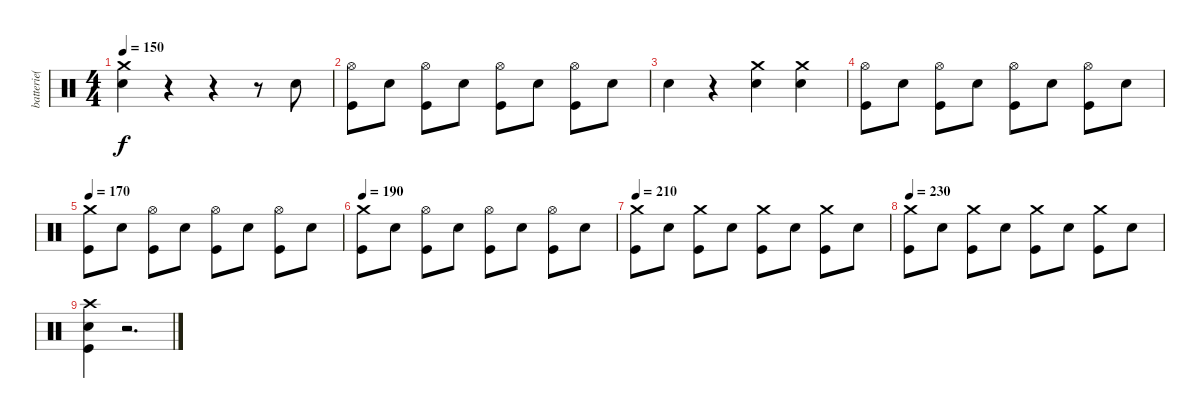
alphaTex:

\track ("batterie( Yureesh )" "batterie( ") {instrument percussion}
\staff {score}
\articulation defaults
\ts (4 4)
\tempo 150
\clef neutral
\ks c
("Crash medium (hit)" "Snare (hit) 2").4{dy f} r.4 r.4 r.8 "Snare (hit) 2".8 |
("Hi-Hat (open)" "Kick (hit)").8 "Snare (hit) 2".8 ("Hi-Hat (open)" "Kick (hit)").8 "Snare (hit) 2".8 ("Hi-Hat (open)" "Kick (hit)").8 "Snare (hit) 2".8 ("Hi-Hat (open)" "Kick (hit)").8 "Snare (hit) 2".8 |
"Snare (hit) 2".4 r.4 ("Crash medium (hit)" "Snare (hit) 2").4 ("Crash medium (hit)" "Snare (hit) 2").4 |
("Hi-Hat (open)" "Kick (hit)").8 "Snare (hit) 2".8 ("Hi-Hat (open)" "Kick (hit)").8 "Snare (hit) 2".8 ("Hi-Hat (open)" "Kick (hit)").8 "Snare (hit) 2".8 ("Hi-Hat (open)" "Kick (hit)").8 "Snare (hit) 2".8 |
\tempo 170
("Crash medium (hit)" "Kick (hit)").8 "Snare (hit) 2".8 ("Hi-Hat (open)" "Kick (hit)").8 "Snare (hit) 2".8 ("Hi-Hat (open)" "Kick (hit)").8 "Snare (hit) 2".8 ("Hi-Hat (open)" "Kick (hit)").8 "Snare (hit) 2".8 |
\tempo 190
("Crash medium (hit)" "Kick (hit)").8 "Snare (hit) 2".8 ("Hi-Hat (open)" "Kick (hit)").8 "Snare (hit) 2".8 ("Hi-Hat (open)" "Kick (hit)").8 "Snare (hit) 2".8 ("Hi-Hat (open)" "Kick (hit)").8 "Snare (hit) 2".8 |
\tempo 210
("Crash medium (hit)" "Kick (hit)").8 "Snare (hit) 2".8 ("Crash medium (hit)" "Kick (hit)").8 "Snare (hit) 2".8 ("Crash medium (hit)" "Kick (hit)").8 "Snare (hit) 2".8 ("Crash medium (hit)" "Kick (hit)").8 "Snare (hit) 2".8 |
\tempo 230
("Crash medium (hit)" "Kick (hit)").8 "Snare (hit) 2".8 ("Crash medium (hit)" "Kick (hit)").8 "Snare (hit) 2".8 ("Crash medium (hit)" "Kick (hit)").8 "Snare (hit) 2".8 ("Crash medium (hit)" "Kick (hit)").8 "Snare (hit) 2".8 |
("Crash high (hit)" "Snare (hit) 2" "Kick (hit)").4 r.2{d}
